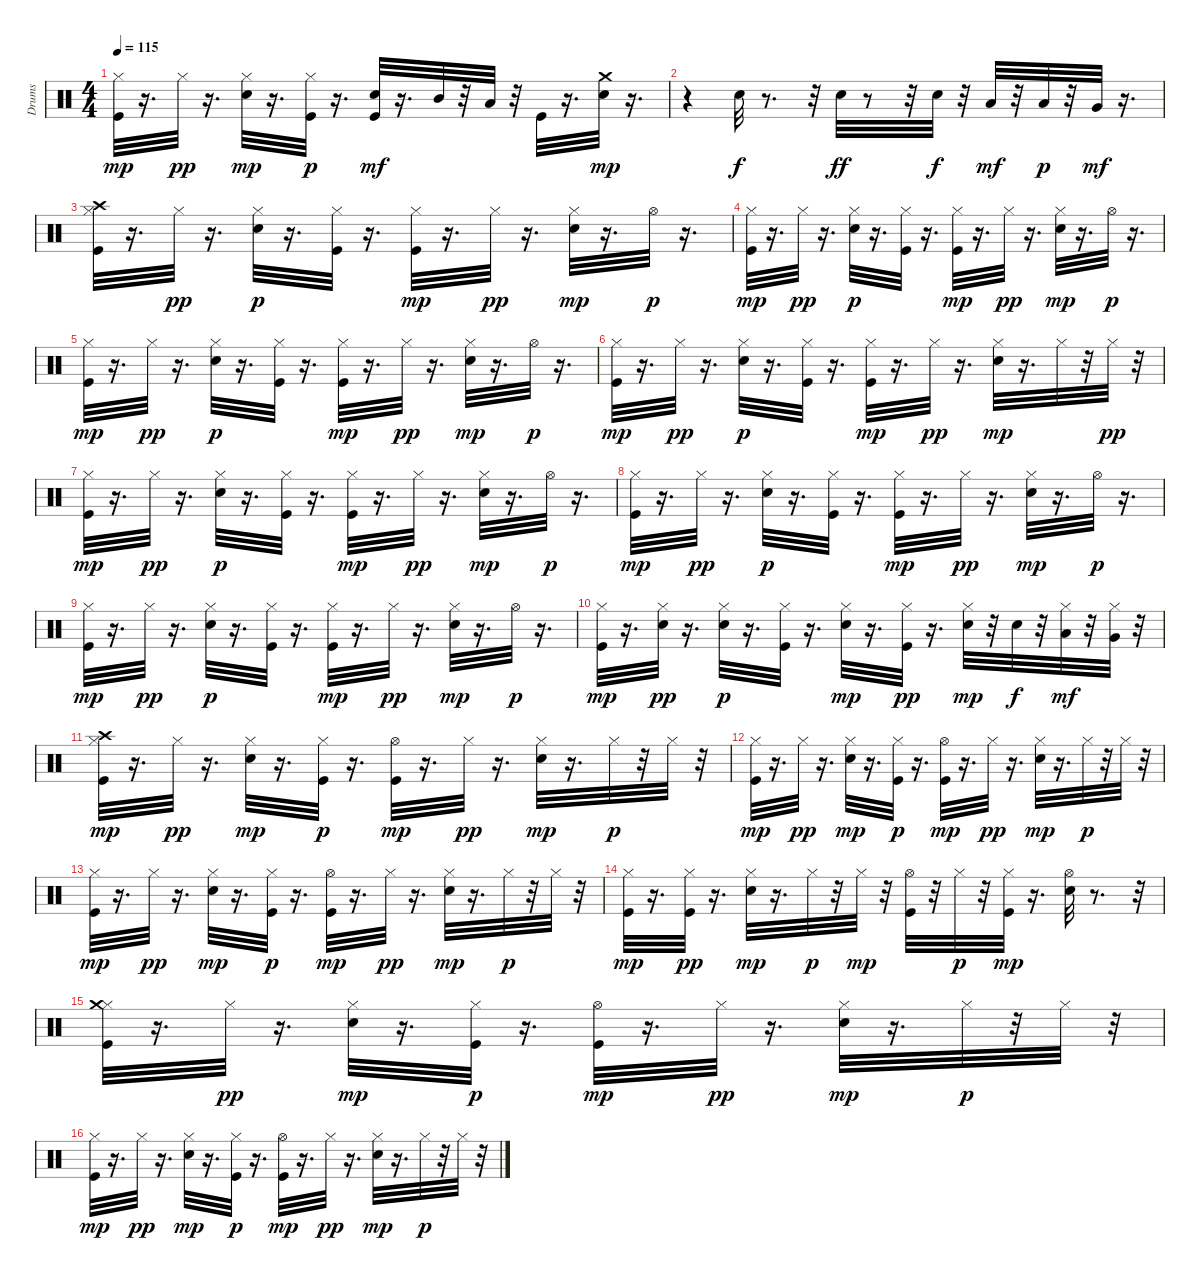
\track ("Drums" "Drums") {instrument percussion}
\staff {score}
\articulation defaults
\ts (4 4)
\tempo 115
\clef neutral
\ks c
("Kick (hit)" "Hi-Hat (closed)").32{dy mp} r.16{d} "Hi-Hat (closed)".32{dy pp} r.16{d} ("Electric Snare (hit)" "Hi-Hat (closed)").32{dy mp} r.16{d} ("Kick (hit)" "Hi-Hat (closed)").32{dy p} r.16{d} ("Kick (hit)" "Electric Snare (hit)").32{dy mf} r.16{d} "Mid Tom (hit)".32 r.32 "Low Tom (hit)".32 r.32 "Kick (hit)".32 r.16{d} ("Electric Snare (hit)" "Crash medium (hit)").32{dy mp} r.16{d} |
r.4 "Electric Snare (hit)".32{dy f} r.8{d} r.32 "Electric Snare (hit)".32{dy ff} r.8 r.32 "Electric Snare (hit)".32{dy f} r.32 "Low Tom (hit)".32{dy mf} r.32 "Low Tom (hit)".32{dy p} r.32 "Very Low Tom (hit)".32{dy mf} r.16{d} |
("Kick (hit)" "Hi-Hat (closed)" "Crash high (hit)").32 r.16{d} "Hi-Hat (closed)".32{dy pp} r.16{d} ("Electric Snare (hit)" "Hi-Hat (closed)").32{dy p} r.16{d} ("Kick (hit)" "Hi-Hat (closed)").32 r.16{d} ("Kick (hit)" "Hi-Hat (closed)").32{dy mp} r.16{d} "Hi-Hat (closed)".32{dy pp} r.16{d} ("Electric Snare (hit)" "Hi-Hat (closed)").32{dy mp} r.16{d} "Hi-Hat (open)".32{dy p} r.16{d} |
("Kick (hit)" "Hi-Hat (closed)").32{dy mp} r.16{d} "Hi-Hat (closed)".32{dy pp} r.16{d} ("Electric Snare (hit)" "Hi-Hat (closed)").32{dy p} r.16{d} ("Kick (hit)" "Hi-Hat (closed)").32 r.16{d} ("Kick (hit)" "Hi-Hat (closed)").32{dy mp} r.16{d} "Hi-Hat (closed)".32{dy pp} r.16{d} ("Electric Snare (hit)" "Hi-Hat (closed)").32{dy mp} r.16{d} "Hi-Hat (open)".32{dy p} r.16{d} |
("Kick (hit)" "Hi-Hat (closed)").32{dy mp} r.16{d} "Hi-Hat (closed)".32{dy pp} r.16{d} ("Electric Snare (hit)" "Hi-Hat (closed)").32{dy p} r.16{d} ("Kick (hit)" "Hi-Hat (closed)").32 r.16{d} ("Kick (hit)" "Hi-Hat (closed)").32{dy mp} r.16{d} "Hi-Hat (closed)".32{dy pp} r.16{d} ("Electric Snare (hit)" "Hi-Hat (closed)").32{dy mp} r.16{d} "Hi-Hat (open)".32{dy p} r.16{d} |
("Kick (hit)" "Hi-Hat (closed)").32{dy mp} r.16{d} "Hi-Hat (closed)".32{dy pp} r.16{d} ("Electric Snare (hit)" "Hi-Hat (closed)").32{dy p} r.16{d} ("Kick (hit)" "Hi-Hat (closed)").32 r.16{d} ("Kick (hit)" "Hi-Hat (closed)").32{dy mp} r.16{d} "Hi-Hat (closed)".32{dy pp} r.16{d} ("Electric Snare (hit)" "Hi-Hat (closed)").32{dy mp} r.16{d} "Hi-Hat (closed)".32 r.32 "Hi-Hat (closed)".32{dy pp} r.32 |
("Kick (hit)" "Hi-Hat (closed)").32{dy mp} r.16{d} "Hi-Hat (closed)".32{dy pp} r.16{d} ("Electric Snare (hit)" "Hi-Hat (closed)").32{dy p} r.16{d} ("Kick (hit)" "Hi-Hat (closed)").32 r.16{d} ("Kick (hit)" "Hi-Hat (closed)").32{dy mp} r.16{d} "Hi-Hat (closed)".32{dy pp} r.16{d} ("Electric Snare (hit)" "Hi-Hat (closed)").32{dy mp} r.16{d} "Hi-Hat (open)".32{dy p} r.16{d} |
("Kick (hit)" "Hi-Hat (closed)").32{dy mp} r.16{d} "Hi-Hat (closed)".32{dy pp} r.16{d} ("Electric Snare (hit)" "Hi-Hat (closed)").32{dy p} r.16{d} ("Kick (hit)" "Hi-Hat (closed)").32 r.16{d} ("Kick (hit)" "Hi-Hat (closed)").32{dy mp} r.16{d} "Hi-Hat (closed)".32{dy pp} r.16{d} ("Electric Snare (hit)" "Hi-Hat (closed)").32{dy mp} r.16{d} "Hi-Hat (open)".32{dy p} r.16{d} |
("Kick (hit)" "Hi-Hat (closed)").32{dy mp} r.16{d} "Hi-Hat (closed)".32{dy pp} r.16{d} ("Electric Snare (hit)" "Hi-Hat (closed)").32{dy p} r.16{d} ("Kick (hit)" "Hi-Hat (closed)").32 r.16{d} ("Kick (hit)" "Hi-Hat (closed)").32{dy mp} r.16{d} "Hi-Hat (closed)".32{dy pp} r.16{d} ("Electric Snare (hit)" "Hi-Hat (closed)").32{dy mp} r.16{d} "Hi-Hat (open)".32{dy p} r.16{d} |
("Kick (hit)" "Hi-Hat (closed)").32{dy mp} r.16{d} ("Electric Snare (hit)" "Hi-Hat (closed)").32{dy pp} r.16{d} ("Electric Snare (hit)" "Hi-Hat (closed)").32{dy p} r.16{d} ("Kick (hit)" "Hi-Hat (closed)").32 r.16{d} ("Electric Snare (hit)" "Hi-Hat (closed)").32{dy mp} r.16{d} ("Kick (hit)" "Hi-Hat (closed)").32{dy pp} r.16{d} ("Electric Snare (hit)" "Hi-Hat (closed)").32{dy mp} r.32 "Electric Snare (hit)".32{dy f} r.32 ("Hi-Hat (closed)" "Low Tom (hit)").32{dy mf} r.32 ("Hi-Hat (closed)" "Very Low Tom (hit)").32 r.32 |
("Kick (hit)" "Hi-Hat (closed)" "Crash high (hit)").32{dy mp} r.16{d} "Hi-Hat (closed)".32{dy pp} r.16{d} ("Electric Snare (hit)" "Hi-Hat (closed)").32{dy mp} r.16{d} ("Kick (hit)" "Hi-Hat (closed)").32{dy p} r.16{d} ("Kick (hit)" "Hi-Hat (open)").32{dy mp} r.16{d} "Hi-Hat (closed)".32{dy pp} r.16{d} ("Electric Snare (hit)" "Hi-Hat (closed)").32{dy mp} r.16{d} "Hi-Hat (closed)".32{dy p} r.32 "Hi-Hat (closed)".32 r.32 |
("Kick (hit)" "Hi-Hat (closed)").32{dy mp} r.16{d} "Hi-Hat (closed)".32{dy pp} r.16{d} ("Electric Snare (hit)" "Hi-Hat (closed)").32{dy mp} r.16{d} ("Kick (hit)" "Hi-Hat (closed)").32{dy p} r.16{d} ("Kick (hit)" "Hi-Hat (open)").32{dy mp} r.16{d} "Hi-Hat (closed)".32{dy pp} r.16{d} ("Electric Snare (hit)" "Hi-Hat (closed)").32{dy mp} r.16{d} "Hi-Hat (closed)".32{dy p} r.32 "Hi-Hat (closed)".32 r.32 |
("Kick (hit)" "Hi-Hat (closed)").32{dy mp} r.16{d} "Hi-Hat (closed)".32{dy pp} r.16{d} ("Electric Snare (hit)" "Hi-Hat (closed)").32{dy mp} r.16{d} ("Kick (hit)" "Hi-Hat (closed)").32{dy p} r.16{d} ("Kick (hit)" "Hi-Hat (open)").32{dy mp} r.16{d} "Hi-Hat (closed)".32{dy pp} r.16{d} ("Electric Snare (hit)" "Hi-Hat (closed)").32{dy mp} r.16{d} "Hi-Hat (closed)".32{dy p} r.32 "Hi-Hat (closed)".32 r.32 |
("Kick (hit)" "Hi-Hat (closed)").32{dy mp} r.16{d} ("Kick (hit)" "Hi-Hat (closed)").32{dy pp} r.16{d} ("Electric Snare (hit)" "Hi-Hat (closed)").32{dy mp} r.16{d} "Hi-Hat (closed)".32{dy p} r.32 "Hi-Hat (closed)".32{dy mp} r.32 ("Kick (hit)" "Hi-Hat (open)").32 r.32 "Hi-Hat (closed)".32{dy p} r.32 ("Kick (hit)" "Hi-Hat (closed)").32{dy mp} r.16{d} ("Electric Snare (hit)" "Hi-Hat (open)").32 r.8{d} r.32 |
("Kick (hit)" "Hi-Hat (closed)" "Crash medium (hit)").32 r.16{d} "Hi-Hat (closed)".32{dy pp} r.16{d} ("Electric Snare (hit)" "Hi-Hat (closed)").32{dy mp} r.16{d} ("Kick (hit)" "Hi-Hat (closed)").32{dy p} r.16{d} ("Kick (hit)" "Hi-Hat (open)").32{dy mp} r.16{d} "Hi-Hat (closed)".32{dy pp} r.16{d} ("Electric Snare (hit)" "Hi-Hat (closed)").32{dy mp} r.16{d} "Hi-Hat (closed)".32{dy p} r.32 "Hi-Hat (closed)".32 r.32 |
("Kick (hit)" "Hi-Hat (closed)").32{dy mp} r.16{d} "Hi-Hat (closed)".32{dy pp} r.16{d} ("Electric Snare (hit)" "Hi-Hat (closed)").32{dy mp} r.16{d} ("Kick (hit)" "Hi-Hat (closed)").32{dy p} r.16{d} ("Kick (hit)" "Hi-Hat (open)").32{dy mp} r.16{d} "Hi-Hat (closed)".32{dy pp} r.16{d} ("Electric Snare (hit)" "Hi-Hat (closed)").32{dy mp} r.16{d} "Hi-Hat (closed)".32{dy p} r.32 "Hi-Hat (closed)".32 r.32
